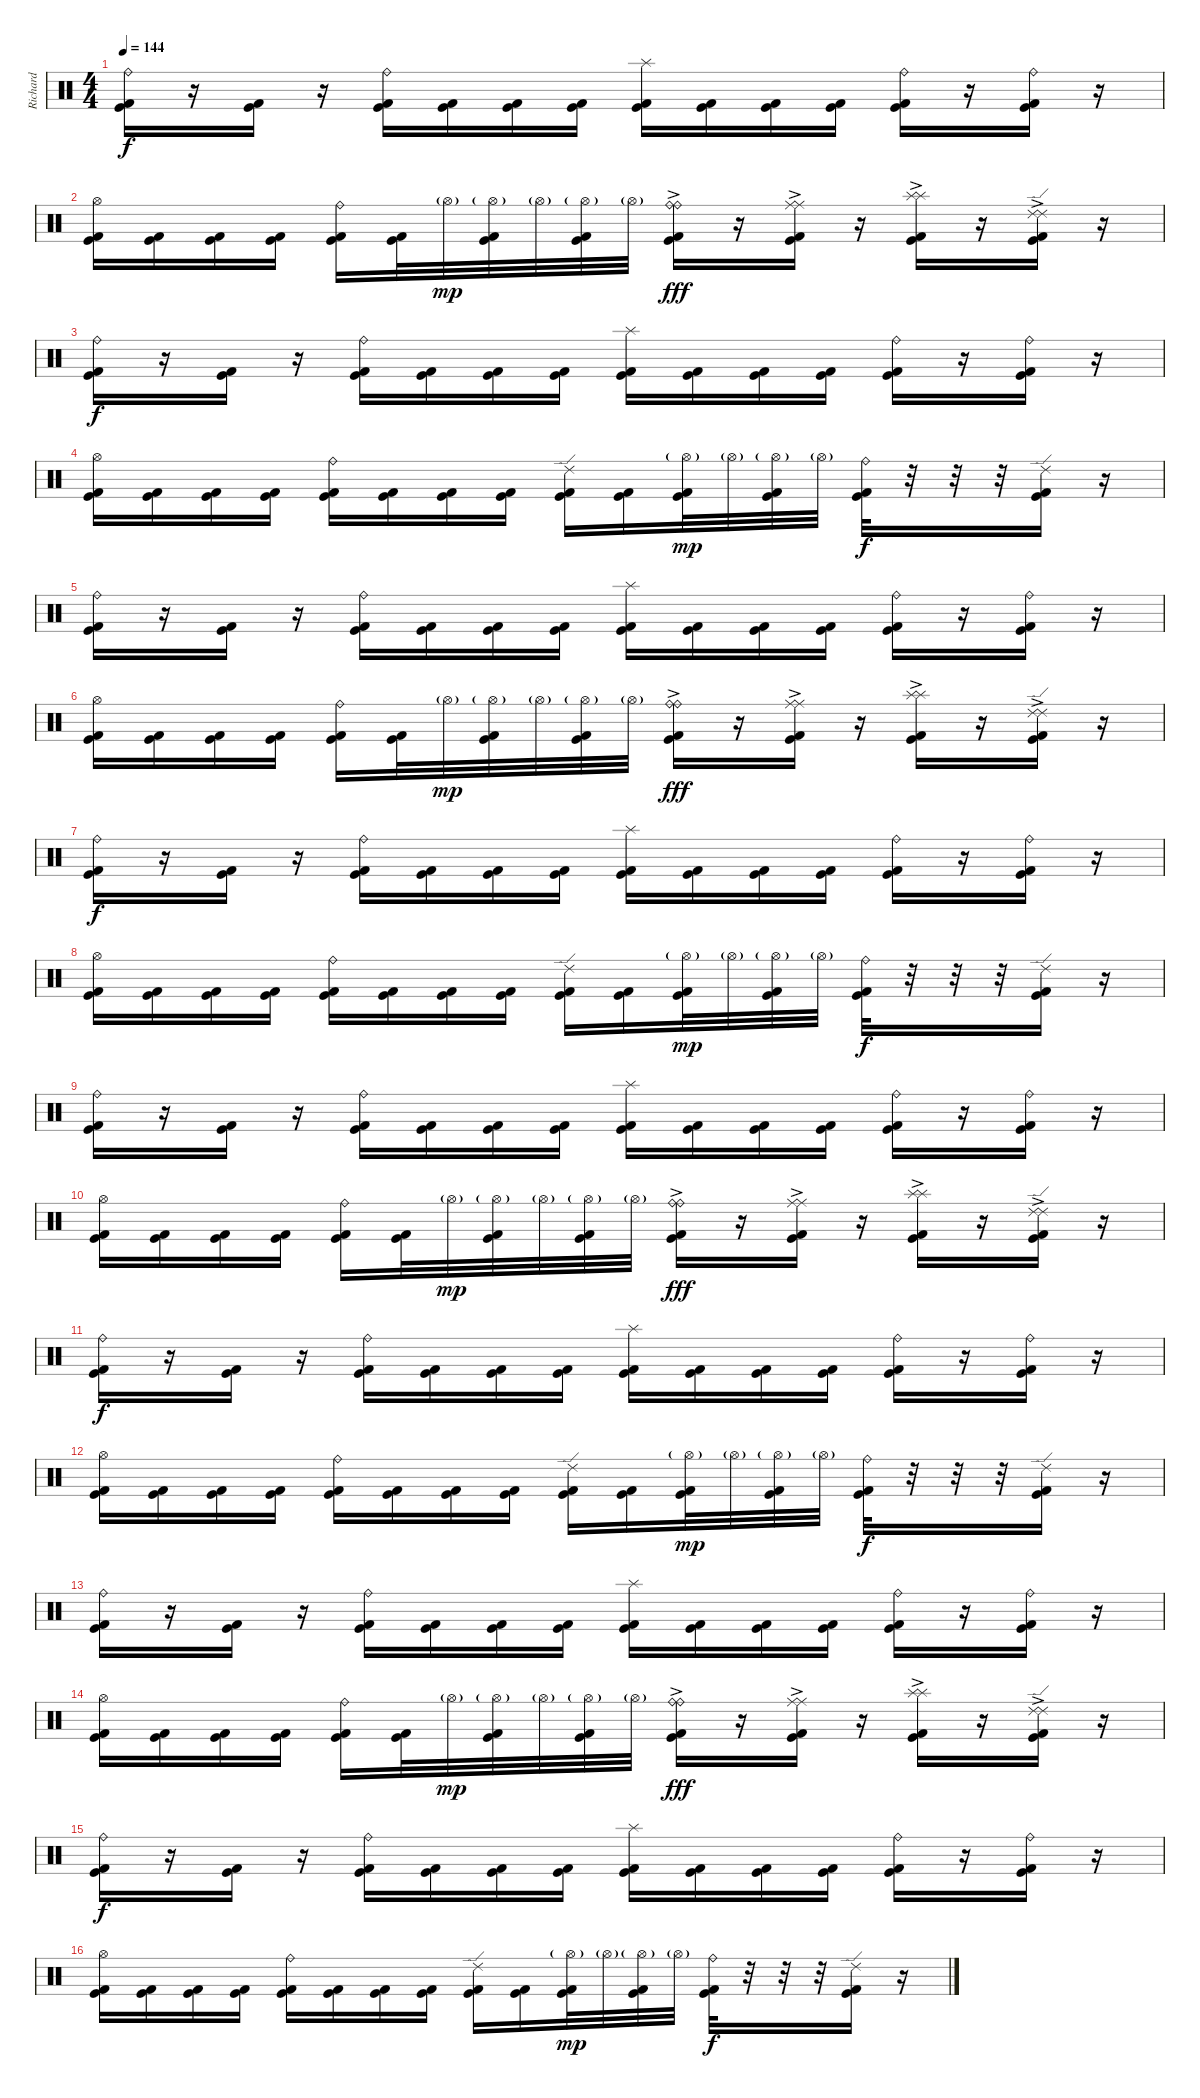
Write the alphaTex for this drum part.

\track ("Richard" "Richard") {instrument percussion}
\staff {score}
\articulation defaults
\ts (4 4)
\tempo 144
\clef neutral
\ks c
("Ride (bell)" "Kick (hit)" "Kick (hit) 2").16{dy f} r.16 ("Kick (hit)" "Kick (hit) 2").16 r.16 ("Ride (bell)" "Kick (hit)" "Kick (hit) 2").16 ("Kick (hit)" "Kick (hit) 2").16 ("Kick (hit)" "Kick (hit) 2").16 ("Kick (hit)" "Kick (hit) 2").16 ("Splash (hit)" "Kick (hit)" "Kick (hit) 2").16 ("Kick (hit)" "Kick (hit) 2").16 ("Kick (hit)" "Kick (hit) 2").16 ("Kick (hit)" "Kick (hit) 2").16 ("Ride (bell)" "Kick (hit)" "Kick (hit) 2").16 r.16 ("Ride (bell)" "Kick (hit)" "Kick (hit) 2").16 r.16 |
("Hi-Hat (open)" "Kick (hit)" "Kick (hit) 2").16 ("Kick (hit)" "Kick (hit) 2").16 ("Kick (hit)" "Kick (hit) 2").16 ("Kick (hit)" "Kick (hit) 2").16 ("Ride (bell)" "Kick (hit)" "Kick (hit) 2").16 ("Kick (hit)" "Kick (hit) 2").32 "Hi-Hat (open)"{g}.32{dy mp} ("Hi-Hat (open)"{g} "Kick (hit)" "Kick (hit) 2").32 "Hi-Hat (open)"{g}.32 ("Hi-Hat (open)"{g} "Kick (hit)" "Kick (hit) 2").32 "Hi-Hat (open)"{g}.32 ("Ride (bell)"{ac} "Ride (bell)"{ac} "Kick (hit)" "Kick (hit) 2").16{dy fff} r.16 ("Ride (middle)"{ac} "Ride (middle)"{ac} "Kick (hit)" "Kick (hit) 2").16 r.16 ("Splash (hit)"{ac} "Splash (hit)"{ac} "Kick (hit)" "Kick (hit) 2").16 r.16 ("Ride (edge) 2"{ac} "Ride (edge) 2"{ac} "Kick (hit)" "Kick (hit) 2").16 r.16 |
("Ride (bell)" "Kick (hit)" "Kick (hit) 2").16{dy f} r.16 ("Kick (hit)" "Kick (hit) 2").16 r.16 ("Ride (bell)" "Kick (hit)" "Kick (hit) 2").16 ("Kick (hit)" "Kick (hit) 2").16 ("Kick (hit)" "Kick (hit) 2").16 ("Kick (hit)" "Kick (hit) 2").16 ("Splash (hit)" "Kick (hit)" "Kick (hit) 2").16 ("Kick (hit)" "Kick (hit) 2").16 ("Kick (hit)" "Kick (hit) 2").16 ("Kick (hit)" "Kick (hit) 2").16 ("Ride (bell)" "Kick (hit)" "Kick (hit) 2").16 r.16 ("Ride (bell)" "Kick (hit)" "Kick (hit) 2").16 r.16 |
("Hi-Hat (open)" "Kick (hit)" "Kick (hit) 2").16 ("Kick (hit)" "Kick (hit) 2").16 ("Kick (hit)" "Kick (hit) 2").16 ("Kick (hit)" "Kick (hit) 2").16 ("Ride (bell)" "Kick (hit)" "Kick (hit) 2").16 ("Kick (hit)" "Kick (hit) 2").16 ("Kick (hit)" "Kick (hit) 2").16 ("Kick (hit)" "Kick (hit) 2").16 ("Ride (edge) 2" "Kick (hit)" "Kick (hit) 2").16 ("Kick (hit)" "Kick (hit) 2").16 ("Hi-Hat (open)"{g} "Kick (hit)" "Kick (hit) 2").32{dy mp} "Hi-Hat (open)"{g}.32 ("Hi-Hat (open)"{g} "Kick (hit)" "Kick (hit) 2").32 "Hi-Hat (open)"{g}.32 ("Ride (bell)" "Kick (hit)" "Kick (hit) 2").32{dy f} r.32 r.32 r.32 ("Ride (edge) 2" "Kick (hit)" "Kick (hit) 2").16 r.16 |
("Ride (bell)" "Kick (hit)" "Kick (hit) 2").16 r.16 ("Kick (hit)" "Kick (hit) 2").16 r.16 ("Ride (bell)" "Kick (hit)" "Kick (hit) 2").16 ("Kick (hit)" "Kick (hit) 2").16 ("Kick (hit)" "Kick (hit) 2").16 ("Kick (hit)" "Kick (hit) 2").16 ("Splash (hit)" "Kick (hit)" "Kick (hit) 2").16 ("Kick (hit)" "Kick (hit) 2").16 ("Kick (hit)" "Kick (hit) 2").16 ("Kick (hit)" "Kick (hit) 2").16 ("Ride (bell)" "Kick (hit)" "Kick (hit) 2").16 r.16 ("Ride (bell)" "Kick (hit)" "Kick (hit) 2").16 r.16 |
("Hi-Hat (open)" "Kick (hit)" "Kick (hit) 2").16 ("Kick (hit)" "Kick (hit) 2").16 ("Kick (hit)" "Kick (hit) 2").16 ("Kick (hit)" "Kick (hit) 2").16 ("Ride (bell)" "Kick (hit)" "Kick (hit) 2").16 ("Kick (hit)" "Kick (hit) 2").32 "Hi-Hat (open)"{g}.32{dy mp} ("Hi-Hat (open)"{g} "Kick (hit)" "Kick (hit) 2").32 "Hi-Hat (open)"{g}.32 ("Hi-Hat (open)"{g} "Kick (hit)" "Kick (hit) 2").32 "Hi-Hat (open)"{g}.32 ("Ride (bell)"{ac} "Ride (bell)"{ac} "Kick (hit)" "Kick (hit) 2").16{dy fff} r.16 ("Ride (middle)"{ac} "Ride (middle)"{ac} "Kick (hit)" "Kick (hit) 2").16 r.16 ("Splash (hit)"{ac} "Splash (hit)"{ac} "Kick (hit)" "Kick (hit) 2").16 r.16 ("Ride (edge) 2"{ac} "Ride (edge) 2"{ac} "Kick (hit)" "Kick (hit) 2").16 r.16 |
("Ride (bell)" "Kick (hit)" "Kick (hit) 2").16{dy f} r.16 ("Kick (hit)" "Kick (hit) 2").16 r.16 ("Ride (bell)" "Kick (hit)" "Kick (hit) 2").16 ("Kick (hit)" "Kick (hit) 2").16 ("Kick (hit)" "Kick (hit) 2").16 ("Kick (hit)" "Kick (hit) 2").16 ("Splash (hit)" "Kick (hit)" "Kick (hit) 2").16 ("Kick (hit)" "Kick (hit) 2").16 ("Kick (hit)" "Kick (hit) 2").16 ("Kick (hit)" "Kick (hit) 2").16 ("Ride (bell)" "Kick (hit)" "Kick (hit) 2").16 r.16 ("Ride (bell)" "Kick (hit)" "Kick (hit) 2").16 r.16 |
("Hi-Hat (open)" "Kick (hit)" "Kick (hit) 2").16 ("Kick (hit)" "Kick (hit) 2").16 ("Kick (hit)" "Kick (hit) 2").16 ("Kick (hit)" "Kick (hit) 2").16 ("Ride (bell)" "Kick (hit)" "Kick (hit) 2").16 ("Kick (hit)" "Kick (hit) 2").16 ("Kick (hit)" "Kick (hit) 2").16 ("Kick (hit)" "Kick (hit) 2").16 ("Ride (edge) 2" "Kick (hit)" "Kick (hit) 2").16 ("Kick (hit)" "Kick (hit) 2").16 ("Hi-Hat (open)"{g} "Kick (hit)" "Kick (hit) 2").32{dy mp} "Hi-Hat (open)"{g}.32 ("Hi-Hat (open)"{g} "Kick (hit)" "Kick (hit) 2").32 "Hi-Hat (open)"{g}.32 ("Ride (bell)" "Kick (hit)" "Kick (hit) 2").32{dy f} r.32 r.32 r.32 ("Ride (edge) 2" "Kick (hit)" "Kick (hit) 2").16 r.16 |
("Ride (bell)" "Kick (hit)" "Kick (hit) 2").16 r.16 ("Kick (hit)" "Kick (hit) 2").16 r.16 ("Ride (bell)" "Kick (hit)" "Kick (hit) 2").16 ("Kick (hit)" "Kick (hit) 2").16 ("Kick (hit)" "Kick (hit) 2").16 ("Kick (hit)" "Kick (hit) 2").16 ("Splash (hit)" "Kick (hit)" "Kick (hit) 2").16 ("Kick (hit)" "Kick (hit) 2").16 ("Kick (hit)" "Kick (hit) 2").16 ("Kick (hit)" "Kick (hit) 2").16 ("Ride (bell)" "Kick (hit)" "Kick (hit) 2").16 r.16 ("Ride (bell)" "Kick (hit)" "Kick (hit) 2").16 r.16 |
("Hi-Hat (open)" "Kick (hit)" "Kick (hit) 2").16 ("Kick (hit)" "Kick (hit) 2").16 ("Kick (hit)" "Kick (hit) 2").16 ("Kick (hit)" "Kick (hit) 2").16 ("Ride (bell)" "Kick (hit)" "Kick (hit) 2").16 ("Kick (hit)" "Kick (hit) 2").32 "Hi-Hat (open)"{g}.32{dy mp} ("Hi-Hat (open)"{g} "Kick (hit)" "Kick (hit) 2").32 "Hi-Hat (open)"{g}.32 ("Hi-Hat (open)"{g} "Kick (hit)" "Kick (hit) 2").32 "Hi-Hat (open)"{g}.32 ("Ride (bell)"{ac} "Ride (bell)"{ac} "Kick (hit)" "Kick (hit) 2").16{dy fff} r.16 ("Ride (middle)"{ac} "Ride (middle)"{ac} "Kick (hit)" "Kick (hit) 2").16 r.16 ("Splash (hit)"{ac} "Splash (hit)"{ac} "Kick (hit)" "Kick (hit) 2").16 r.16 ("Ride (edge) 2"{ac} "Ride (edge) 2"{ac} "Kick (hit)" "Kick (hit) 2").16 r.16 |
("Ride (bell)" "Kick (hit)" "Kick (hit) 2").16{dy f} r.16 ("Kick (hit)" "Kick (hit) 2").16 r.16 ("Ride (bell)" "Kick (hit)" "Kick (hit) 2").16 ("Kick (hit)" "Kick (hit) 2").16 ("Kick (hit)" "Kick (hit) 2").16 ("Kick (hit)" "Kick (hit) 2").16 ("Splash (hit)" "Kick (hit)" "Kick (hit) 2").16 ("Kick (hit)" "Kick (hit) 2").16 ("Kick (hit)" "Kick (hit) 2").16 ("Kick (hit)" "Kick (hit) 2").16 ("Ride (bell)" "Kick (hit)" "Kick (hit) 2").16 r.16 ("Ride (bell)" "Kick (hit)" "Kick (hit) 2").16 r.16 |
("Hi-Hat (open)" "Kick (hit)" "Kick (hit) 2").16 ("Kick (hit)" "Kick (hit) 2").16 ("Kick (hit)" "Kick (hit) 2").16 ("Kick (hit)" "Kick (hit) 2").16 ("Ride (bell)" "Kick (hit)" "Kick (hit) 2").16 ("Kick (hit)" "Kick (hit) 2").16 ("Kick (hit)" "Kick (hit) 2").16 ("Kick (hit)" "Kick (hit) 2").16 ("Ride (edge) 2" "Kick (hit)" "Kick (hit) 2").16 ("Kick (hit)" "Kick (hit) 2").16 ("Hi-Hat (open)"{g} "Kick (hit)" "Kick (hit) 2").32{dy mp} "Hi-Hat (open)"{g}.32 ("Hi-Hat (open)"{g} "Kick (hit)" "Kick (hit) 2").32 "Hi-Hat (open)"{g}.32 ("Ride (bell)" "Kick (hit)" "Kick (hit) 2").32{dy f} r.32 r.32 r.32 ("Ride (edge) 2" "Kick (hit)" "Kick (hit) 2").16 r.16 |
("Ride (bell)" "Kick (hit)" "Kick (hit) 2").16 r.16 ("Kick (hit)" "Kick (hit) 2").16 r.16 ("Ride (bell)" "Kick (hit)" "Kick (hit) 2").16 ("Kick (hit)" "Kick (hit) 2").16 ("Kick (hit)" "Kick (hit) 2").16 ("Kick (hit)" "Kick (hit) 2").16 ("Splash (hit)" "Kick (hit)" "Kick (hit) 2").16 ("Kick (hit)" "Kick (hit) 2").16 ("Kick (hit)" "Kick (hit) 2").16 ("Kick (hit)" "Kick (hit) 2").16 ("Ride (bell)" "Kick (hit)" "Kick (hit) 2").16 r.16 ("Ride (bell)" "Kick (hit)" "Kick (hit) 2").16 r.16 |
("Hi-Hat (open)" "Kick (hit)" "Kick (hit) 2").16 ("Kick (hit)" "Kick (hit) 2").16 ("Kick (hit)" "Kick (hit) 2").16 ("Kick (hit)" "Kick (hit) 2").16 ("Ride (bell)" "Kick (hit)" "Kick (hit) 2").16 ("Kick (hit)" "Kick (hit) 2").32 "Hi-Hat (open)"{g}.32{dy mp} ("Hi-Hat (open)"{g} "Kick (hit)" "Kick (hit) 2").32 "Hi-Hat (open)"{g}.32 ("Hi-Hat (open)"{g} "Kick (hit)" "Kick (hit) 2").32 "Hi-Hat (open)"{g}.32 ("Ride (bell)"{ac} "Ride (bell)"{ac} "Kick (hit)" "Kick (hit) 2").16{dy fff} r.16 ("Ride (middle)"{ac} "Ride (middle)"{ac} "Kick (hit)" "Kick (hit) 2").16 r.16 ("Splash (hit)"{ac} "Splash (hit)"{ac} "Kick (hit)" "Kick (hit) 2").16 r.16 ("Ride (edge) 2"{ac} "Ride (edge) 2"{ac} "Kick (hit)" "Kick (hit) 2").16 r.16 |
("Ride (bell)" "Kick (hit)" "Kick (hit) 2").16{dy f} r.16 ("Kick (hit)" "Kick (hit) 2").16 r.16 ("Ride (bell)" "Kick (hit)" "Kick (hit) 2").16 ("Kick (hit)" "Kick (hit) 2").16 ("Kick (hit)" "Kick (hit) 2").16 ("Kick (hit)" "Kick (hit) 2").16 ("Splash (hit)" "Kick (hit)" "Kick (hit) 2").16 ("Kick (hit)" "Kick (hit) 2").16 ("Kick (hit)" "Kick (hit) 2").16 ("Kick (hit)" "Kick (hit) 2").16 ("Ride (bell)" "Kick (hit)" "Kick (hit) 2").16 r.16 ("Ride (bell)" "Kick (hit)" "Kick (hit) 2").16 r.16 |
("Hi-Hat (open)" "Kick (hit)" "Kick (hit) 2").16 ("Kick (hit)" "Kick (hit) 2").16 ("Kick (hit)" "Kick (hit) 2").16 ("Kick (hit)" "Kick (hit) 2").16 ("Ride (bell)" "Kick (hit)" "Kick (hit) 2").16 ("Kick (hit)" "Kick (hit) 2").16 ("Kick (hit)" "Kick (hit) 2").16 ("Kick (hit)" "Kick (hit) 2").16 ("Ride (edge) 2" "Kick (hit)" "Kick (hit) 2").16 ("Kick (hit)" "Kick (hit) 2").16 ("Hi-Hat (open)"{g} "Kick (hit)" "Kick (hit) 2").32{dy mp} "Hi-Hat (open)"{g}.32 ("Hi-Hat (open)"{g} "Kick (hit)" "Kick (hit) 2").32 "Hi-Hat (open)"{g}.32 ("Ride (bell)" "Kick (hit)" "Kick (hit) 2").32{dy f} r.32 r.32 r.32 ("Ride (edge) 2" "Kick (hit)" "Kick (hit) 2").16 r.16
